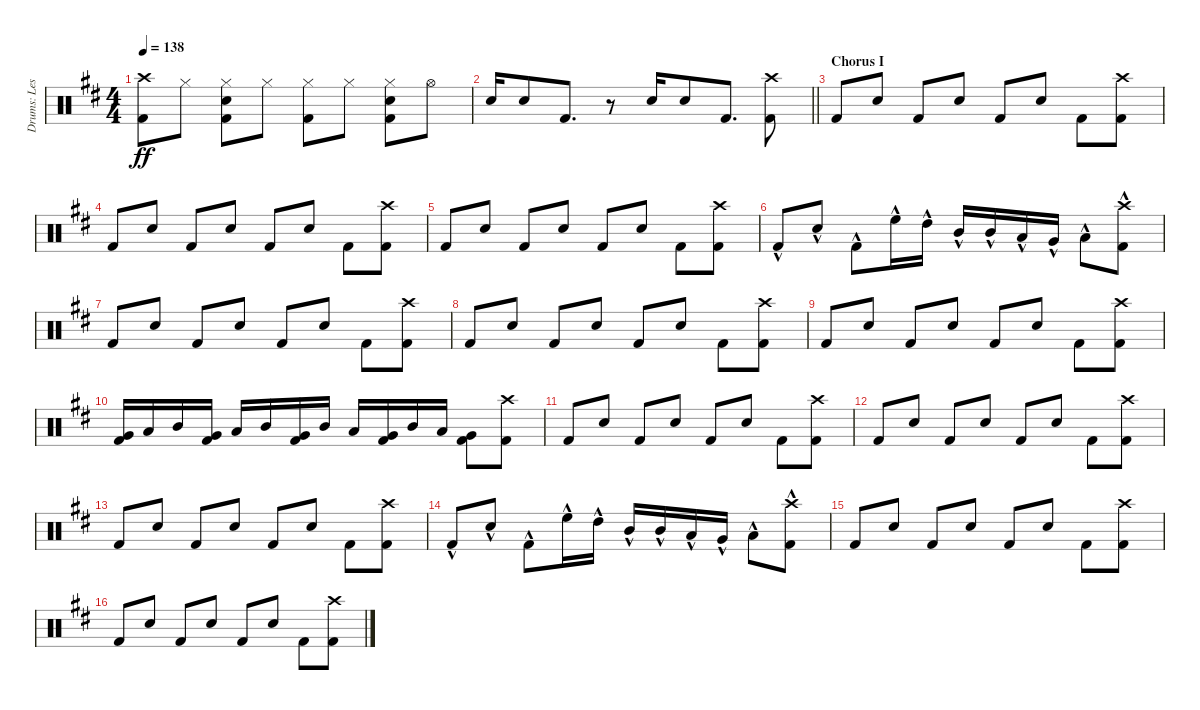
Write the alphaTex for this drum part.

\track ("Drums: Les" "Drums: Les") {instrument percussion}
\staff {score}
\articulation defaults
\ts (4 4)
\tempo 138
\clef neutral
\ks d
("Crash high (hit)" "Kick (hit) 2").8{dy ff} "Hi-Hat (closed)".8 ("Hi-Hat (closed)" "Snare (hit) 2" "Kick (hit) 2").8 "Hi-Hat (closed)".8 ("Hi-Hat (closed)" "Kick (hit) 2").8 "Hi-Hat (closed)".8 ("Hi-Hat (closed)" "Snare (hit) 2" "Kick (hit) 2").8 "Hi-Hat (open)".8 |
\barLineRight lightlight "Snare (hit) 2".16 "Snare (hit) 2".8 "Kick (hit) 2".8{d}
r.8 "Snare (hit) 2".16 "Snare (hit) 2".8 "Kick (hit) 2".8{d} ("Crash high (hit)" "Kick (hit) 2").8 |
\section ("" "Chorus I")
"Kick (hit) 2".8 "Electric Snare (hit)".8 "Kick (hit) 2".8 "Electric Snare (hit)".8 "Kick (hit) 2".8 "Electric Snare (hit)".8 "Kick (hit) 2".8 ("Crash high (hit)" "Kick (hit) 2").8 |
"Kick (hit) 2".8 "Electric Snare (hit)".8 "Kick (hit) 2".8 "Electric Snare (hit)".8 "Kick (hit) 2".8 "Electric Snare (hit)".8 "Kick (hit) 2".8 ("Crash high (hit)" "Kick (hit) 2").8 |
"Kick (hit) 2".8 "Electric Snare (hit)".8 "Kick (hit) 2".8 "Electric Snare (hit)".8 "Kick (hit) 2".8 "Electric Snare (hit)".8 "Kick (hit) 2".8 ("Crash high (hit)" "Kick (hit) 2").8 |
"Kick (hit) 2"{hac}.8 "Electric Snare (hit)"{hac}.8 "Kick (hit) 2"{hac}.8 "High Floor Tom (hit)"{hac}.16 "High Tom (hit)"{hac}.16 "Mid Tom (hit)"{hac}.16 "Mid Tom (hit)"{hac}.16 "Low Tom (hit)"{hac}.16 "Very Low Tom (hit)"{hac}.16 "Low Floor Tom (hit)"{hac}.8 ("Crash high (hit)"{hac} "Kick (hit) 2"{hac}).8 |
"Kick (hit) 2".8 "Electric Snare (hit)".8 "Kick (hit) 2".8 "Electric Snare (hit)".8 "Kick (hit) 2".8 "Electric Snare (hit)".8 "Kick (hit) 2".8 ("Crash high (hit)" "Kick (hit) 2").8 |
"Kick (hit) 2".8 "Electric Snare (hit)".8 "Kick (hit) 2".8 "Electric Snare (hit)".8 "Kick (hit) 2".8 "Electric Snare (hit)".8 "Kick (hit) 2".8 ("Crash high (hit)" "Kick (hit) 2").8 |
"Kick (hit) 2".8 "Electric Snare (hit)".8 "Kick (hit) 2".8 "Electric Snare (hit)".8 "Kick (hit) 2".8 "Electric Snare (hit)".8 "Kick (hit) 2".8 ("Crash high (hit)" "Kick (hit) 2").8 |
("Very Low Tom (hit)" "Kick (hit) 2").16 "Low Tom (hit)".16 "Mid Tom (hit)".16 ("Very Low Tom (hit)" "Kick (hit) 2").16 "Low Tom (hit)".16 "Mid Tom (hit)".16 ("Very Low Tom (hit)" "Kick (hit) 2").16 "Mid Tom (hit)".16 "Low Tom (hit)".16 ("Very Low Tom (hit)" "Kick (hit) 2").16 "Mid Tom (hit)".16 "Low Tom (hit)".16 ("Very Low Tom (hit)" "Kick (hit) 2").8 ("Crash high (hit)" "Kick (hit) 2").8 |
"Kick (hit) 2".8 "Electric Snare (hit)".8 "Kick (hit) 2".8 "Electric Snare (hit)".8 "Kick (hit) 2".8 "Electric Snare (hit)".8 "Kick (hit) 2".8 ("Crash high (hit)" "Kick (hit) 2").8 |
"Kick (hit) 2".8 "Electric Snare (hit)".8 "Kick (hit) 2".8 "Electric Snare (hit)".8 "Kick (hit) 2".8 "Electric Snare (hit)".8 "Kick (hit) 2".8 ("Crash high (hit)" "Kick (hit) 2").8 |
"Kick (hit) 2".8 "Electric Snare (hit)".8 "Kick (hit) 2".8 "Electric Snare (hit)".8 "Kick (hit) 2".8 "Electric Snare (hit)".8 "Kick (hit) 2".8 ("Crash high (hit)" "Kick (hit) 2").8 |
"Kick (hit) 2"{hac}.8 "Electric Snare (hit)"{hac}.8 "Kick (hit) 2"{hac}.8 "High Floor Tom (hit)"{hac}.16 "High Tom (hit)"{hac}.16 "Mid Tom (hit)"{hac}.16 "Mid Tom (hit)"{hac}.16 "Low Tom (hit)"{hac}.16 "Very Low Tom (hit)"{hac}.16 "Low Floor Tom (hit)"{hac}.8 ("Crash high (hit)"{hac} "Kick (hit) 2"{hac}).8 |
"Kick (hit) 2".8 "Electric Snare (hit)".8 "Kick (hit) 2".8 "Electric Snare (hit)".8 "Kick (hit) 2".8 "Electric Snare (hit)".8 "Kick (hit) 2".8 ("Crash high (hit)" "Kick (hit) 2").8 |
"Kick (hit) 2".8 "Electric Snare (hit)".8 "Kick (hit) 2".8 "Electric Snare (hit)".8 "Kick (hit) 2".8 "Electric Snare (hit)".8 "Kick (hit) 2".8 ("Crash high (hit)" "Kick (hit) 2").8
